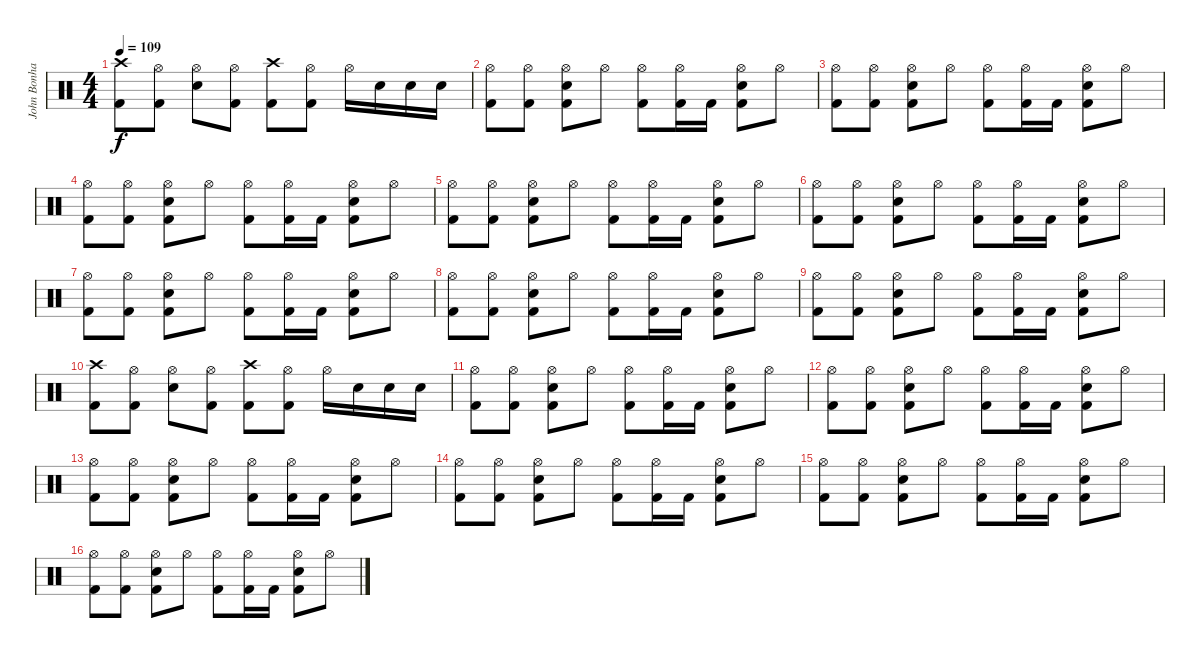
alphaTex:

\track ("John Bonham" "John Bonha") {instrument percussion}
\staff {score}
\articulation defaults
\ts (4 4)
\tempo 109
\clef neutral
\ks c
("Kick (hit) 2" "Crash high (hit)").8{dy f} ("Kick (hit) 2" "Hi-Hat (open)").8 ("Electric Snare (hit)" "Hi-Hat (open)").8 ("Kick (hit) 2" "Hi-Hat (open)").8 ("Kick (hit) 2" "Crash high (hit)").8 ("Kick (hit) 2" "Hi-Hat (open)").8 "Hi-Hat (open)".16 "Electric Snare (hit)".16 "Electric Snare (hit)".16 "Snare (hit) 2".16 |
("Kick (hit) 2" "Hi-Hat (open)").8 ("Kick (hit) 2" "Hi-Hat (open)").8 ("Kick (hit) 2" "Snare (hit) 2" "Hi-Hat (open)").8 "Hi-Hat (open)".8 ("Kick (hit) 2" "Hi-Hat (open)").8 ("Kick (hit) 2" "Hi-Hat (open)").16 "Kick (hit) 2".16 ("Kick (hit) 2" "Electric Snare (hit)" "Hi-Hat (open)").8 "Hi-Hat (open)".8 |
("Kick (hit) 2" "Hi-Hat (open)").8 ("Kick (hit) 2" "Hi-Hat (open)").8 ("Kick (hit) 2" "Snare (hit) 2" "Hi-Hat (open)").8 "Hi-Hat (open)".8 ("Kick (hit) 2" "Hi-Hat (open)").8 ("Kick (hit) 2" "Hi-Hat (open)").16 "Kick (hit) 2".16 ("Kick (hit) 2" "Electric Snare (hit)" "Hi-Hat (open)").8 "Hi-Hat (open)".8 |
("Kick (hit) 2" "Hi-Hat (open)").8 ("Kick (hit) 2" "Hi-Hat (open)").8 ("Kick (hit) 2" "Snare (hit) 2" "Hi-Hat (open)").8 "Hi-Hat (open)".8 ("Kick (hit) 2" "Hi-Hat (open)").8 ("Kick (hit) 2" "Hi-Hat (open)").16 "Kick (hit) 2".16 ("Kick (hit) 2" "Electric Snare (hit)" "Hi-Hat (open)").8 "Hi-Hat (open)".8 |
("Kick (hit) 2" "Hi-Hat (open)").8 ("Kick (hit) 2" "Hi-Hat (open)").8 ("Kick (hit) 2" "Snare (hit) 2" "Hi-Hat (open)").8 "Hi-Hat (open)".8 ("Kick (hit) 2" "Hi-Hat (open)").8 ("Kick (hit) 2" "Hi-Hat (open)").16 "Kick (hit) 2".16 ("Kick (hit) 2" "Electric Snare (hit)" "Hi-Hat (open)").8 "Hi-Hat (open)".8 |
("Kick (hit) 2" "Hi-Hat (open)").8 ("Kick (hit) 2" "Hi-Hat (open)").8 ("Kick (hit) 2" "Snare (hit) 2" "Hi-Hat (open)").8 "Hi-Hat (open)".8 ("Kick (hit) 2" "Hi-Hat (open)").8 ("Kick (hit) 2" "Hi-Hat (open)").16 "Kick (hit) 2".16 ("Kick (hit) 2" "Electric Snare (hit)" "Hi-Hat (open)").8 "Hi-Hat (open)".8 |
("Kick (hit) 2" "Hi-Hat (open)").8 ("Kick (hit) 2" "Hi-Hat (open)").8 ("Kick (hit) 2" "Snare (hit) 2" "Hi-Hat (open)").8 "Hi-Hat (open)".8 ("Kick (hit) 2" "Hi-Hat (open)").8 ("Kick (hit) 2" "Hi-Hat (open)").16 "Kick (hit) 2".16 ("Kick (hit) 2" "Electric Snare (hit)" "Hi-Hat (open)").8 "Hi-Hat (open)".8 |
("Kick (hit) 2" "Hi-Hat (open)").8 ("Kick (hit) 2" "Hi-Hat (open)").8 ("Kick (hit) 2" "Snare (hit) 2" "Hi-Hat (open)").8 "Hi-Hat (open)".8 ("Kick (hit) 2" "Hi-Hat (open)").8 ("Kick (hit) 2" "Hi-Hat (open)").16 "Kick (hit) 2".16 ("Kick (hit) 2" "Electric Snare (hit)" "Hi-Hat (open)").8 "Hi-Hat (open)".8 |
("Kick (hit) 2" "Hi-Hat (open)").8 ("Kick (hit) 2" "Hi-Hat (open)").8 ("Kick (hit) 2" "Snare (hit) 2" "Hi-Hat (open)").8 "Hi-Hat (open)".8 ("Kick (hit) 2" "Hi-Hat (open)").8 ("Kick (hit) 2" "Hi-Hat (open)").16 "Kick (hit) 2".16 ("Kick (hit) 2" "Electric Snare (hit)" "Hi-Hat (open)").8 "Hi-Hat (open)".8 |
("Kick (hit) 2" "Crash high (hit)").8 ("Kick (hit) 2" "Hi-Hat (open)").8 ("Electric Snare (hit)" "Hi-Hat (open)").8 ("Kick (hit) 2" "Hi-Hat (open)").8 ("Kick (hit) 2" "Crash high (hit)").8 ("Kick (hit) 2" "Hi-Hat (open)").8 "Hi-Hat (open)".16 "Electric Snare (hit)".16 "Electric Snare (hit)".16 "Snare (hit) 2".16 |
("Kick (hit) 2" "Hi-Hat (open)").8 ("Kick (hit) 2" "Hi-Hat (open)").8 ("Kick (hit) 2" "Snare (hit) 2" "Hi-Hat (open)").8 "Hi-Hat (open)".8 ("Kick (hit) 2" "Hi-Hat (open)").8 ("Kick (hit) 2" "Hi-Hat (open)").16 "Kick (hit) 2".16 ("Kick (hit) 2" "Electric Snare (hit)" "Hi-Hat (open)").8 "Hi-Hat (open)".8 |
("Kick (hit) 2" "Hi-Hat (open)").8 ("Kick (hit) 2" "Hi-Hat (open)").8 ("Kick (hit) 2" "Snare (hit) 2" "Hi-Hat (open)").8 "Hi-Hat (open)".8 ("Kick (hit) 2" "Hi-Hat (open)").8 ("Kick (hit) 2" "Hi-Hat (open)").16 "Kick (hit) 2".16 ("Kick (hit) 2" "Electric Snare (hit)" "Hi-Hat (open)").8 "Hi-Hat (open)".8 |
("Kick (hit) 2" "Hi-Hat (open)").8 ("Kick (hit) 2" "Hi-Hat (open)").8 ("Kick (hit) 2" "Snare (hit) 2" "Hi-Hat (open)").8 "Hi-Hat (open)".8 ("Kick (hit) 2" "Hi-Hat (open)").8 ("Kick (hit) 2" "Hi-Hat (open)").16 "Kick (hit) 2".16 ("Kick (hit) 2" "Electric Snare (hit)" "Hi-Hat (open)").8 "Hi-Hat (open)".8 |
("Kick (hit) 2" "Hi-Hat (open)").8 ("Kick (hit) 2" "Hi-Hat (open)").8 ("Kick (hit) 2" "Snare (hit) 2" "Hi-Hat (open)").8 "Hi-Hat (open)".8 ("Kick (hit) 2" "Hi-Hat (open)").8 ("Kick (hit) 2" "Hi-Hat (open)").16 "Kick (hit) 2".16 ("Kick (hit) 2" "Electric Snare (hit)" "Hi-Hat (open)").8 "Hi-Hat (open)".8 |
("Kick (hit) 2" "Hi-Hat (open)").8 ("Kick (hit) 2" "Hi-Hat (open)").8 ("Kick (hit) 2" "Snare (hit) 2" "Hi-Hat (open)").8 "Hi-Hat (open)".8 ("Kick (hit) 2" "Hi-Hat (open)").8 ("Kick (hit) 2" "Hi-Hat (open)").16 "Kick (hit) 2".16 ("Kick (hit) 2" "Electric Snare (hit)" "Hi-Hat (open)").8 "Hi-Hat (open)".8 |
("Kick (hit) 2" "Hi-Hat (open)").8 ("Kick (hit) 2" "Hi-Hat (open)").8 ("Kick (hit) 2" "Snare (hit) 2" "Hi-Hat (open)").8 "Hi-Hat (open)".8 ("Kick (hit) 2" "Hi-Hat (open)").8 ("Kick (hit) 2" "Hi-Hat (open)").16 "Kick (hit) 2".16 ("Kick (hit) 2" "Electric Snare (hit)" "Hi-Hat (open)").8 "Hi-Hat (open)".8
